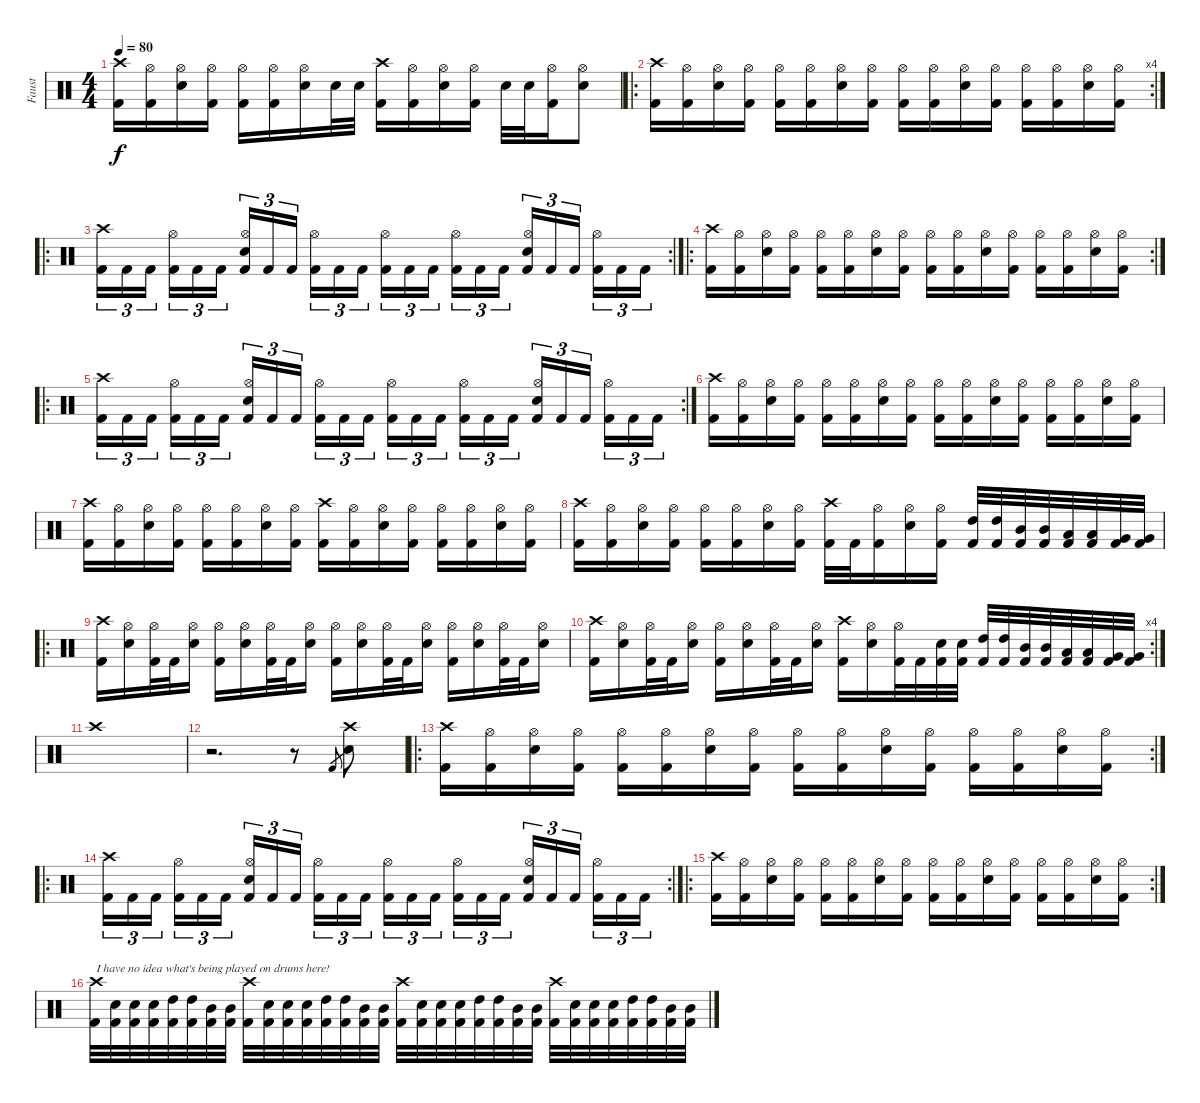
\track ("Faust" "Faust") {instrument percussion}
\staff {score}
\articulation defaults
\ts (4 4)
\tempo 80
\clef neutral
\ks c
("Crash high (hit)" "Kick (hit) 2").16{dy f} ("Hi-Hat (open)" "Kick (hit) 2").16 ("Electric Snare (hit)" "Hi-Hat (open)").16 ("Hi-Hat (open)" "Kick (hit) 2").16 ("Hi-Hat (open)" "Kick (hit) 2").16 ("Hi-Hat (open)" "Kick (hit) 2").16 ("Electric Snare (hit)" "Hi-Hat (open)").16 "Electric Snare (hit)".32 "Electric Snare (hit)".32 ("Crash high (hit)" "Kick (hit) 2").16 ("Hi-Hat (open)" "Kick (hit) 2").16 ("Electric Snare (hit)" "Hi-Hat (open)").16 ("Hi-Hat (open)" "Kick (hit) 2").16 "Electric Snare (hit)".32 "Electric Snare (hit)".32 ("Hi-Hat (open)" "Kick (hit) 2").16 ("Electric Snare (hit)" "Hi-Hat (open)").8 |
\ro
\rc 4
("Crash high (hit)" "Kick (hit) 2").16 ("Hi-Hat (open)" "Kick (hit) 2").16 ("Electric Snare (hit)" "Hi-Hat (open)").16 ("Hi-Hat (open)" "Kick (hit) 2").16 ("Hi-Hat (open)" "Kick (hit) 2").16 ("Hi-Hat (open)" "Kick (hit) 2").16 ("Electric Snare (hit)" "Hi-Hat (open)").16 ("Hi-Hat (open)" "Kick (hit) 2").16 ("Hi-Hat (open)" "Kick (hit) 2").16 ("Hi-Hat (open)" "Kick (hit) 2").16 ("Electric Snare (hit)" "Hi-Hat (open)").16 ("Hi-Hat (open)" "Kick (hit) 2").16 ("Hi-Hat (open)" "Kick (hit) 2").16 ("Hi-Hat (open)" "Kick (hit) 2").16 ("Electric Snare (hit)" "Hi-Hat (open)").16 ("Hi-Hat (open)" "Kick (hit) 2").16 |
\ro
\rc 2
("Crash high (hit)" "Kick (hit) 2").16{tu (3 2)} "Kick (hit) 2".16{tu (3 2)} "Kick (hit) 2".16{tu (3 2)} ("Hi-Hat (open)" "Kick (hit) 2").16{tu (3 2)} "Kick (hit) 2".16{tu (3 2)} "Kick (hit) 2".16{tu (3 2)} ("Electric Snare (hit)" "Hi-Hat (open)" "Kick (hit) 2").16{tu (3 2)} "Kick (hit) 2".16{tu (3 2)} "Kick (hit) 2".16{tu (3 2)} ("Hi-Hat (open)" "Kick (hit) 2").16{tu (3 2)} "Kick (hit) 2".16{tu (3 2)} "Kick (hit) 2".16{tu (3 2)} ("Hi-Hat (open)" "Kick (hit) 2").16{tu (3 2)} "Kick (hit) 2".16{tu (3 2)} "Kick (hit) 2".16{tu (3 2)} ("Hi-Hat (open)" "Kick (hit) 2").16{tu (3 2)} "Kick (hit) 2".16{tu (3 2)} "Kick (hit) 2".16{tu (3 2)} ("Electric Snare (hit)" "Hi-Hat (open)" "Kick (hit) 2").16{tu (3 2)} "Kick (hit) 2".16{tu (3 2)} "Kick (hit) 2".16{tu (3 2)} ("Hi-Hat (open)" "Kick (hit) 2").16{tu (3 2)} "Kick (hit) 2".16{tu (3 2)} "Kick (hit) 2".16{tu (3 2)} |
\ro
\rc 2
("Crash high (hit)" "Kick (hit) 2").16 ("Hi-Hat (open)" "Kick (hit) 2").16 ("Electric Snare (hit)" "Hi-Hat (open)").16 ("Hi-Hat (open)" "Kick (hit) 2").16 ("Hi-Hat (open)" "Kick (hit) 2").16 ("Hi-Hat (open)" "Kick (hit) 2").16 ("Electric Snare (hit)" "Hi-Hat (open)").16 ("Hi-Hat (open)" "Kick (hit) 2").16 ("Hi-Hat (open)" "Kick (hit) 2").16 ("Hi-Hat (open)" "Kick (hit) 2").16 ("Electric Snare (hit)" "Hi-Hat (open)").16 ("Hi-Hat (open)" "Kick (hit) 2").16 ("Hi-Hat (open)" "Kick (hit) 2").16 ("Hi-Hat (open)" "Kick (hit) 2").16 ("Electric Snare (hit)" "Hi-Hat (open)").16 ("Hi-Hat (open)" "Kick (hit) 2").16 |
\ro
\rc 2
("Crash high (hit)" "Kick (hit) 2").16{tu (3 2)} "Kick (hit) 2".16{tu (3 2)} "Kick (hit) 2".16{tu (3 2)} ("Hi-Hat (open)" "Kick (hit) 2").16{tu (3 2)} "Kick (hit) 2".16{tu (3 2)} "Kick (hit) 2".16{tu (3 2)} ("Electric Snare (hit)" "Hi-Hat (open)" "Kick (hit) 2").16{tu (3 2)} "Kick (hit) 2".16{tu (3 2)} "Kick (hit) 2".16{tu (3 2)} ("Hi-Hat (open)" "Kick (hit) 2").16{tu (3 2)} "Kick (hit) 2".16{tu (3 2)} "Kick (hit) 2".16{tu (3 2)} ("Hi-Hat (open)" "Kick (hit) 2").16{tu (3 2)} "Kick (hit) 2".16{tu (3 2)} "Kick (hit) 2".16{tu (3 2)} ("Hi-Hat (open)" "Kick (hit) 2").16{tu (3 2)} "Kick (hit) 2".16{tu (3 2)} "Kick (hit) 2".16{tu (3 2)} ("Electric Snare (hit)" "Hi-Hat (open)" "Kick (hit) 2").16{tu (3 2)} "Kick (hit) 2".16{tu (3 2)} "Kick (hit) 2".16{tu (3 2)} ("Hi-Hat (open)" "Kick (hit) 2").16{tu (3 2)} "Kick (hit) 2".16{tu (3 2)} "Kick (hit) 2".16{tu (3 2)} |
("Crash high (hit)" "Kick (hit) 2").16 ("Hi-Hat (open)" "Kick (hit) 2").16 ("Electric Snare (hit)" "Hi-Hat (open)").16 ("Hi-Hat (open)" "Kick (hit) 2").16 ("Hi-Hat (open)" "Kick (hit) 2").16 ("Hi-Hat (open)" "Kick (hit) 2").16 ("Electric Snare (hit)" "Hi-Hat (open)").16 ("Hi-Hat (open)" "Kick (hit) 2").16 ("Hi-Hat (open)" "Kick (hit) 2").16 ("Hi-Hat (open)" "Kick (hit) 2").16 ("Electric Snare (hit)" "Hi-Hat (open)").16 ("Hi-Hat (open)" "Kick (hit) 2").16 ("Hi-Hat (open)" "Kick (hit) 2").16 ("Hi-Hat (open)" "Kick (hit) 2").16 ("Electric Snare (hit)" "Hi-Hat (open)").16 ("Hi-Hat (open)" "Kick (hit) 2").16 |
("Crash high (hit)" "Kick (hit) 2").16 ("Hi-Hat (open)" "Kick (hit) 2").16 ("Electric Snare (hit)" "Hi-Hat (open)").16 ("Hi-Hat (open)" "Kick (hit) 2").16 ("Hi-Hat (open)" "Kick (hit) 2").16 ("Hi-Hat (open)" "Kick (hit) 2").16 ("Electric Snare (hit)" "Hi-Hat (open)").16 ("Hi-Hat (open)" "Kick (hit) 2").16 ("Crash high (hit)" "Kick (hit) 2").16 ("Hi-Hat (open)" "Kick (hit) 2").16 ("Electric Snare (hit)" "Hi-Hat (open)").16 ("Hi-Hat (open)" "Kick (hit) 2").16 ("Hi-Hat (open)" "Kick (hit) 2").16 ("Hi-Hat (open)" "Kick (hit) 2").16 ("Electric Snare (hit)" "Hi-Hat (open)").16 ("Hi-Hat (open)" "Kick (hit) 2").16 |
("Crash high (hit)" "Kick (hit) 2").16 ("Hi-Hat (open)" "Kick (hit) 2").16 ("Electric Snare (hit)" "Hi-Hat (open)").16 ("Hi-Hat (open)" "Kick (hit) 2").16 ("Hi-Hat (open)" "Kick (hit) 2").16 ("Hi-Hat (open)" "Kick (hit) 2").16 ("Electric Snare (hit)" "Hi-Hat (open)").16 ("Hi-Hat (open)" "Kick (hit) 2").16 ("Crash high (hit)" "Kick (hit) 2").32 "Kick (hit) 2".32 ("Hi-Hat (open)" "Kick (hit) 2").16 ("Electric Snare (hit)" "Hi-Hat (open)").16 ("Hi-Hat (open)" "Kick (hit) 2").16 ("High Tom (hit)" "Kick (hit) 2").32 ("High Tom (hit)" "Kick (hit) 2").32 ("Mid Tom (hit)" "Kick (hit) 2").32 ("Mid Tom (hit)" "Kick (hit) 2").32 ("Low Tom (hit)" "Kick (hit) 2").32 ("Low Tom (hit)" "Kick (hit) 2").32 ("Very Low Tom (hit)" "Kick (hit) 2").32 ("Very Low Tom (hit)" "Kick (hit) 2").32 |
\ro
("Crash high (hit)" "Kick (hit) 2").16 ("Electric Snare (hit)" "Hi-Hat (open)").16 ("Hi-Hat (open)" "Kick (hit) 2").32 "Kick (hit) 2".32 ("Electric Snare (hit)" "Hi-Hat (open)").16 ("Hi-Hat (open)" "Kick (hit) 2").16 ("Electric Snare (hit)" "Hi-Hat (open)").16 ("Hi-Hat (open)" "Kick (hit) 2").32 "Kick (hit) 2".32 ("Electric Snare (hit)" "Hi-Hat (open)").16 ("Hi-Hat (open)" "Kick (hit) 2").16 ("Electric Snare (hit)" "Hi-Hat (open)").16 ("Hi-Hat (open)" "Kick (hit) 2").32 "Kick (hit) 2".32 ("Electric Snare (hit)" "Hi-Hat (open)").16 ("Hi-Hat (open)" "Kick (hit) 2").16 ("Electric Snare (hit)" "Hi-Hat (open)").16 ("Hi-Hat (open)" "Kick (hit) 2").32 "Kick (hit) 2".32 ("Electric Snare (hit)" "Hi-Hat (open)").16 |
\rc 4
("Crash high (hit)" "Kick (hit) 2").16 ("Electric Snare (hit)" "Hi-Hat (open)").16 ("Hi-Hat (open)" "Kick (hit) 2").32 "Kick (hit) 2".32 ("Electric Snare (hit)" "Hi-Hat (open)").16 ("Hi-Hat (open)" "Kick (hit) 2").16 ("Electric Snare (hit)" "Hi-Hat (open)").16 ("Hi-Hat (open)" "Kick (hit) 2").32 "Kick (hit) 2".32 ("Electric Snare (hit)" "Hi-Hat (open)").16 ("Crash high (hit)" "Kick (hit) 2").16 ("Electric Snare (hit)" "Hi-Hat (open)").16 ("Hi-Hat (open)" "Kick (hit) 2").32 "Kick (hit) 2".32 ("Electric Snare (hit)" "Kick (hit) 2").32 ("Electric Snare (hit)" "Kick (hit) 2").32 ("High Tom (hit)" "Kick (hit) 2").32 ("High Tom (hit)" "Kick (hit) 2").32 ("Mid Tom (hit)" "Kick (hit) 2").32 ("Mid Tom (hit)" "Kick (hit) 2").32 ("Low Tom (hit)" "Kick (hit) 2").32 ("Low Tom (hit)" "Kick (hit) 2").32 ("Very Low Tom (hit)" "Kick (hit) 2").32 ("Very Low Tom (hit)" "Kick (hit) 2").32 |
"Crash high (hit)".1 |
r.2{d} r.8 "Kick (hit) 2".8{gr} ("Crash high (hit)" "Electric Snare (hit)").8 |
\ro
\rc 2
("Crash high (hit)" "Kick (hit) 2").16 ("Hi-Hat (open)" "Kick (hit) 2").16 ("Electric Snare (hit)" "Hi-Hat (open)").16 ("Hi-Hat (open)" "Kick (hit) 2").16 ("Hi-Hat (open)" "Kick (hit) 2").16 ("Hi-Hat (open)" "Kick (hit) 2").16 ("Electric Snare (hit)" "Hi-Hat (open)").16 ("Hi-Hat (open)" "Kick (hit) 2").16 ("Hi-Hat (open)" "Kick (hit) 2").16 ("Hi-Hat (open)" "Kick (hit) 2").16 ("Electric Snare (hit)" "Hi-Hat (open)").16 ("Hi-Hat (open)" "Kick (hit) 2").16 ("Hi-Hat (open)" "Kick (hit) 2").16 ("Hi-Hat (open)" "Kick (hit) 2").16 ("Electric Snare (hit)" "Hi-Hat (open)").16 ("Hi-Hat (open)" "Kick (hit) 2").16 |
\ro
\rc 2
("Crash high (hit)" "Kick (hit) 2").16{tu (3 2)} "Kick (hit) 2".16{tu (3 2)} "Kick (hit) 2".16{tu (3 2)} ("Hi-Hat (open)" "Kick (hit) 2").16{tu (3 2)} "Kick (hit) 2".16{tu (3 2)} "Kick (hit) 2".16{tu (3 2)} ("Electric Snare (hit)" "Hi-Hat (open)" "Kick (hit) 2").16{tu (3 2)} "Kick (hit) 2".16{tu (3 2)} "Kick (hit) 2".16{tu (3 2)} ("Hi-Hat (open)" "Kick (hit) 2").16{tu (3 2)} "Kick (hit) 2".16{tu (3 2)} "Kick (hit) 2".16{tu (3 2)} ("Hi-Hat (open)" "Kick (hit) 2").16{tu (3 2)} "Kick (hit) 2".16{tu (3 2)} "Kick (hit) 2".16{tu (3 2)} ("Hi-Hat (open)" "Kick (hit) 2").16{tu (3 2)} "Kick (hit) 2".16{tu (3 2)} "Kick (hit) 2".16{tu (3 2)} ("Electric Snare (hit)" "Hi-Hat (open)" "Kick (hit) 2").16{tu (3 2)} "Kick (hit) 2".16{tu (3 2)} "Kick (hit) 2".16{tu (3 2)} ("Hi-Hat (open)" "Kick (hit) 2").16{tu (3 2)} "Kick (hit) 2".16{tu (3 2)} "Kick (hit) 2".16{tu (3 2)} |
\ro
\rc 2
("Crash high (hit)" "Kick (hit) 2").16 ("Hi-Hat (open)" "Kick (hit) 2").16 ("Electric Snare (hit)" "Hi-Hat (open)").16 ("Hi-Hat (open)" "Kick (hit) 2").16 ("Hi-Hat (open)" "Kick (hit) 2").16 ("Hi-Hat (open)" "Kick (hit) 2").16 ("Electric Snare (hit)" "Hi-Hat (open)").16 ("Hi-Hat (open)" "Kick (hit) 2").16 ("Hi-Hat (open)" "Kick (hit) 2").16 ("Hi-Hat (open)" "Kick (hit) 2").16 ("Electric Snare (hit)" "Hi-Hat (open)").16 ("Hi-Hat (open)" "Kick (hit) 2").16 ("Hi-Hat (open)" "Kick (hit) 2").16 ("Hi-Hat (open)" "Kick (hit) 2").16 ("Electric Snare (hit)" "Hi-Hat (open)").16 ("Hi-Hat (open)" "Kick (hit) 2").16 |
("Crash high (hit)" "Kick (hit) 2").32{txt "I have no idea what's being played on drums here!"} ("Electric Snare (hit)" "Kick (hit) 2").32 ("Electric Snare (hit)" "Kick (hit) 2").32 ("Electric Snare (hit)" "Kick (hit) 2").32 ("High Tom (hit)" "Kick (hit) 2").32 ("High Tom (hit)" "Kick (hit) 2").32 ("Mid Tom (hit)" "Kick (hit) 2").32 ("Mid Tom (hit)" "Kick (hit) 2").32 ("Crash high (hit)" "Kick (hit) 2").32 ("Electric Snare (hit)" "Kick (hit) 2").32 ("Electric Snare (hit)" "Kick (hit) 2").32 ("Electric Snare (hit)" "Kick (hit) 2").32 ("High Tom (hit)" "Kick (hit) 2").32 ("High Tom (hit)" "Kick (hit) 2").32 ("Mid Tom (hit)" "Kick (hit) 2").32 ("Mid Tom (hit)" "Kick (hit) 2").32 ("Crash high (hit)" "Kick (hit) 2").32 ("Electric Snare (hit)" "Kick (hit) 2").32 ("Electric Snare (hit)" "Kick (hit) 2").32 ("Electric Snare (hit)" "Kick (hit) 2").32 ("High Tom (hit)" "Kick (hit) 2").32 ("High Tom (hit)" "Kick (hit) 2").32 ("Mid Tom (hit)" "Kick (hit) 2").32 ("Mid Tom (hit)" "Kick (hit) 2").32 ("Crash high (hit)" "Kick (hit) 2").32 ("Electric Snare (hit)" "Kick (hit) 2").32 ("Electric Snare (hit)" "Kick (hit) 2").32 ("Electric Snare (hit)" "Kick (hit) 2").32 ("High Tom (hit)" "Kick (hit) 2").32 ("High Tom (hit)" "Kick (hit) 2").32 ("Mid Tom (hit)" "Kick (hit) 2").32 ("Mid Tom (hit)" "Kick (hit) 2").32
